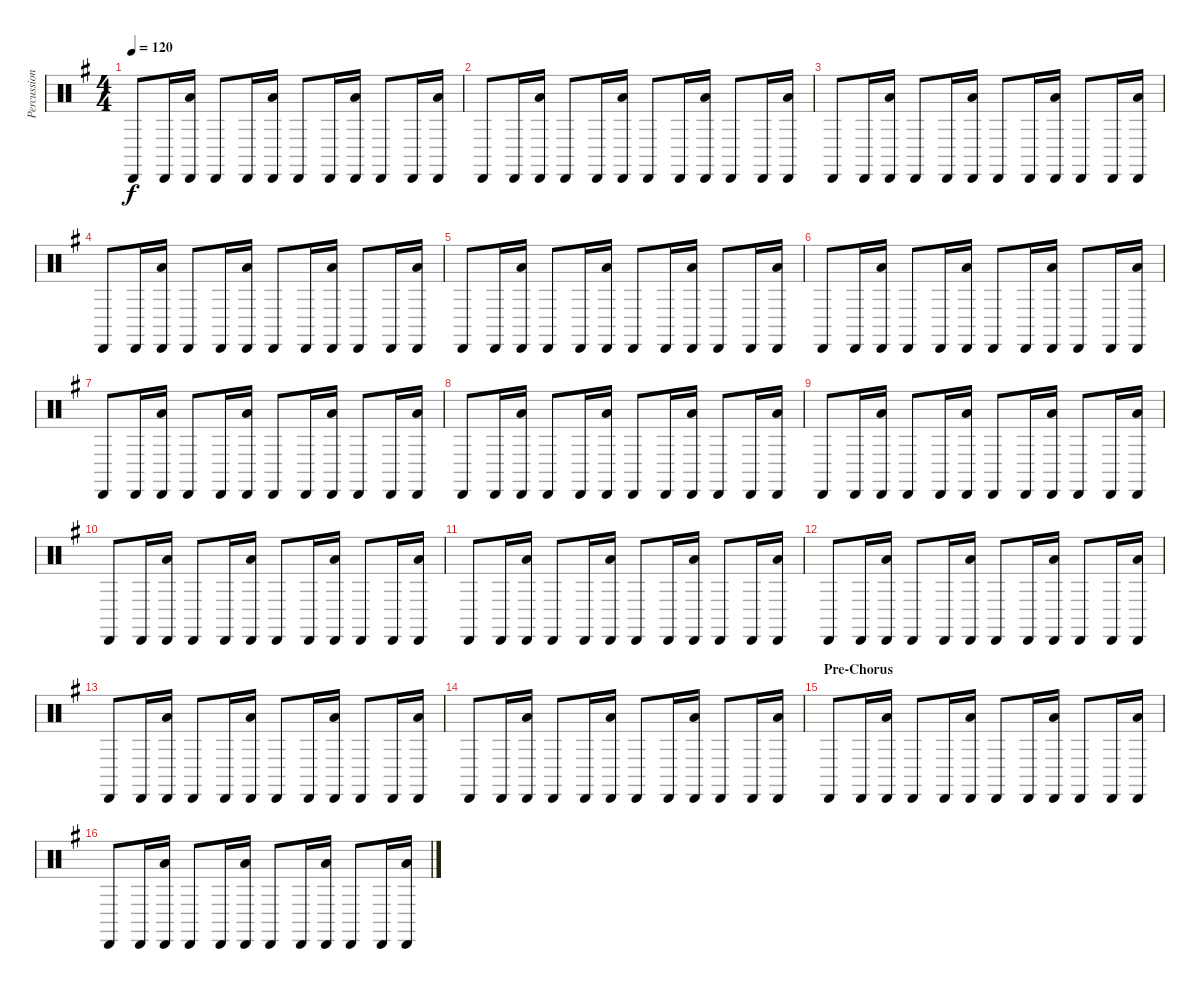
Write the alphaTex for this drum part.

\track ("Percussion" "Percussion") {instrument percussion}
\staff {score}
\articulation defaults
\ts (4 4)
\tempo 120
\clef neutral
\ks g "Cabasa (hit)".8{dy f} "Cabasa (hit)".16
("Cabasa (hit)" "Low Floor Tom (hit)").16 "Cabasa (hit)".8 "Cabasa (hit)".16 ("Cabasa (hit)" "Low Floor Tom (hit)").16 "Cabasa (hit)".8 "Cabasa (hit)".16 ("Cabasa (hit)" "Low Floor Tom (hit)").16 "Cabasa (hit)".8 "Cabasa (hit)".16 ("Cabasa (hit)" "Low Floor Tom (hit)").16 |
"Cabasa (hit)".8 "Cabasa (hit)".16 ("Cabasa (hit)" "Low Floor Tom (hit)").16 "Cabasa (hit)".8 "Cabasa (hit)".16 ("Cabasa (hit)" "Low Floor Tom (hit)").16 "Cabasa (hit)".8 "Cabasa (hit)".16 ("Cabasa (hit)" "Low Floor Tom (hit)").16 "Cabasa (hit)".8 "Cabasa (hit)".16 ("Cabasa (hit)" "Low Floor Tom (hit)").16 |
"Cabasa (hit)".8 "Cabasa (hit)".16 ("Cabasa (hit)" "Low Floor Tom (hit)").16 "Cabasa (hit)".8 "Cabasa (hit)".16 ("Cabasa (hit)" "Low Floor Tom (hit)").16 "Cabasa (hit)".8 "Cabasa (hit)".16 ("Cabasa (hit)" "Low Floor Tom (hit)").16 "Cabasa (hit)".8 "Cabasa (hit)".16 ("Cabasa (hit)" "Low Floor Tom (hit)").16 |
"Cabasa (hit)".8 "Cabasa (hit)".16 ("Cabasa (hit)" "Low Floor Tom (hit)").16 "Cabasa (hit)".8 "Cabasa (hit)".16 ("Cabasa (hit)" "Low Floor Tom (hit)").16 "Cabasa (hit)".8 "Cabasa (hit)".16 ("Cabasa (hit)" "Low Floor Tom (hit)").16 "Cabasa (hit)".8 "Cabasa (hit)".16 ("Cabasa (hit)" "Low Floor Tom (hit)").16 |
"Cabasa (hit)".8 "Cabasa (hit)".16 ("Cabasa (hit)" "Low Floor Tom (hit)").16 "Cabasa (hit)".8 "Cabasa (hit)".16 ("Cabasa (hit)" "Low Floor Tom (hit)").16 "Cabasa (hit)".8 "Cabasa (hit)".16 ("Cabasa (hit)" "Low Floor Tom (hit)").16 "Cabasa (hit)".8 "Cabasa (hit)".16 ("Cabasa (hit)" "Low Floor Tom (hit)").16 |
"Cabasa (hit)".8 "Cabasa (hit)".16 ("Cabasa (hit)" "Low Floor Tom (hit)").16 "Cabasa (hit)".8 "Cabasa (hit)".16 ("Cabasa (hit)" "Low Floor Tom (hit)").16 "Cabasa (hit)".8 "Cabasa (hit)".16 ("Cabasa (hit)" "Low Floor Tom (hit)").16 "Cabasa (hit)".8 "Cabasa (hit)".16 ("Cabasa (hit)" "Low Floor Tom (hit)").16 |
"Cabasa (hit)".8 "Cabasa (hit)".16 ("Cabasa (hit)" "Low Floor Tom (hit)").16 "Cabasa (hit)".8 "Cabasa (hit)".16 ("Cabasa (hit)" "Low Floor Tom (hit)").16 "Cabasa (hit)".8 "Cabasa (hit)".16 ("Cabasa (hit)" "Low Floor Tom (hit)").16 "Cabasa (hit)".8 "Cabasa (hit)".16 ("Cabasa (hit)" "Low Floor Tom (hit)").16 |
"Cabasa (hit)".8 "Cabasa (hit)".16 ("Cabasa (hit)" "Low Floor Tom (hit)").16 "Cabasa (hit)".8 "Cabasa (hit)".16 ("Cabasa (hit)" "Low Floor Tom (hit)").16 "Cabasa (hit)".8 "Cabasa (hit)".16 ("Cabasa (hit)" "Low Floor Tom (hit)").16 "Cabasa (hit)".8 "Cabasa (hit)".16 ("Cabasa (hit)" "Low Floor Tom (hit)").16 |
"Cabasa (hit)".8 "Cabasa (hit)".16 ("Cabasa (hit)" "Low Floor Tom (hit)").16 "Cabasa (hit)".8 "Cabasa (hit)".16 ("Cabasa (hit)" "Low Floor Tom (hit)").16 "Cabasa (hit)".8 "Cabasa (hit)".16 ("Cabasa (hit)" "Low Floor Tom (hit)").16 "Cabasa (hit)".8 "Cabasa (hit)".16 ("Cabasa (hit)" "Low Floor Tom (hit)").16 |
"Cabasa (hit)".8 "Cabasa (hit)".16 ("Cabasa (hit)" "Low Floor Tom (hit)").16 "Cabasa (hit)".8 "Cabasa (hit)".16 ("Cabasa (hit)" "Low Floor Tom (hit)").16 "Cabasa (hit)".8 "Cabasa (hit)".16 ("Cabasa (hit)" "Low Floor Tom (hit)").16 "Cabasa (hit)".8 "Cabasa (hit)".16 ("Cabasa (hit)" "Low Floor Tom (hit)").16 |
"Cabasa (hit)".8 "Cabasa (hit)".16 ("Cabasa (hit)" "Low Floor Tom (hit)").16 "Cabasa (hit)".8 "Cabasa (hit)".16 ("Cabasa (hit)" "Low Floor Tom (hit)").16 "Cabasa (hit)".8 "Cabasa (hit)".16 ("Cabasa (hit)" "Low Floor Tom (hit)").16 "Cabasa (hit)".8 "Cabasa (hit)".16 ("Cabasa (hit)" "Low Floor Tom (hit)").16 |
"Cabasa (hit)".8 "Cabasa (hit)".16 ("Cabasa (hit)" "Low Floor Tom (hit)").16 "Cabasa (hit)".8 "Cabasa (hit)".16 ("Cabasa (hit)" "Low Floor Tom (hit)").16 "Cabasa (hit)".8 "Cabasa (hit)".16 ("Cabasa (hit)" "Low Floor Tom (hit)").16 "Cabasa (hit)".8 "Cabasa (hit)".16 ("Cabasa (hit)" "Low Floor Tom (hit)").16 |
"Cabasa (hit)".8 "Cabasa (hit)".16 ("Cabasa (hit)" "Low Floor Tom (hit)").16 "Cabasa (hit)".8 "Cabasa (hit)".16 ("Cabasa (hit)" "Low Floor Tom (hit)").16 "Cabasa (hit)".8 "Cabasa (hit)".16 ("Cabasa (hit)" "Low Floor Tom (hit)").16 "Cabasa (hit)".8 "Cabasa (hit)".16 ("Cabasa (hit)" "Low Floor Tom (hit)").16 |
"Cabasa (hit)".8 "Cabasa (hit)".16 ("Cabasa (hit)" "Low Floor Tom (hit)").16 "Cabasa (hit)".8 "Cabasa (hit)".16 ("Cabasa (hit)" "Low Floor Tom (hit)").16 "Cabasa (hit)".8 "Cabasa (hit)".16 ("Cabasa (hit)" "Low Floor Tom (hit)").16 "Cabasa (hit)".8 "Cabasa (hit)".16 ("Cabasa (hit)" "Low Floor Tom (hit)").16 |
\section ("" "Pre-Chorus")
"Cabasa (hit)".8 "Cabasa (hit)".16 ("Cabasa (hit)" "Low Floor Tom (hit)").16 "Cabasa (hit)".8 "Cabasa (hit)".16 ("Cabasa (hit)" "Low Floor Tom (hit)").16 "Cabasa (hit)".8 "Cabasa (hit)".16 ("Cabasa (hit)" "Low Floor Tom (hit)").16 "Cabasa (hit)".8 "Cabasa (hit)".16 ("Cabasa (hit)" "Low Floor Tom (hit)").16 |
"Cabasa (hit)".8 "Cabasa (hit)".16 ("Cabasa (hit)" "Low Floor Tom (hit)").16 "Cabasa (hit)".8 "Cabasa (hit)".16 ("Cabasa (hit)" "Low Floor Tom (hit)").16 "Cabasa (hit)".8 "Cabasa (hit)".16 ("Cabasa (hit)" "Low Floor Tom (hit)").16 "Cabasa (hit)".8 "Cabasa (hit)".16 ("Cabasa (hit)" "Low Floor Tom (hit)").16
